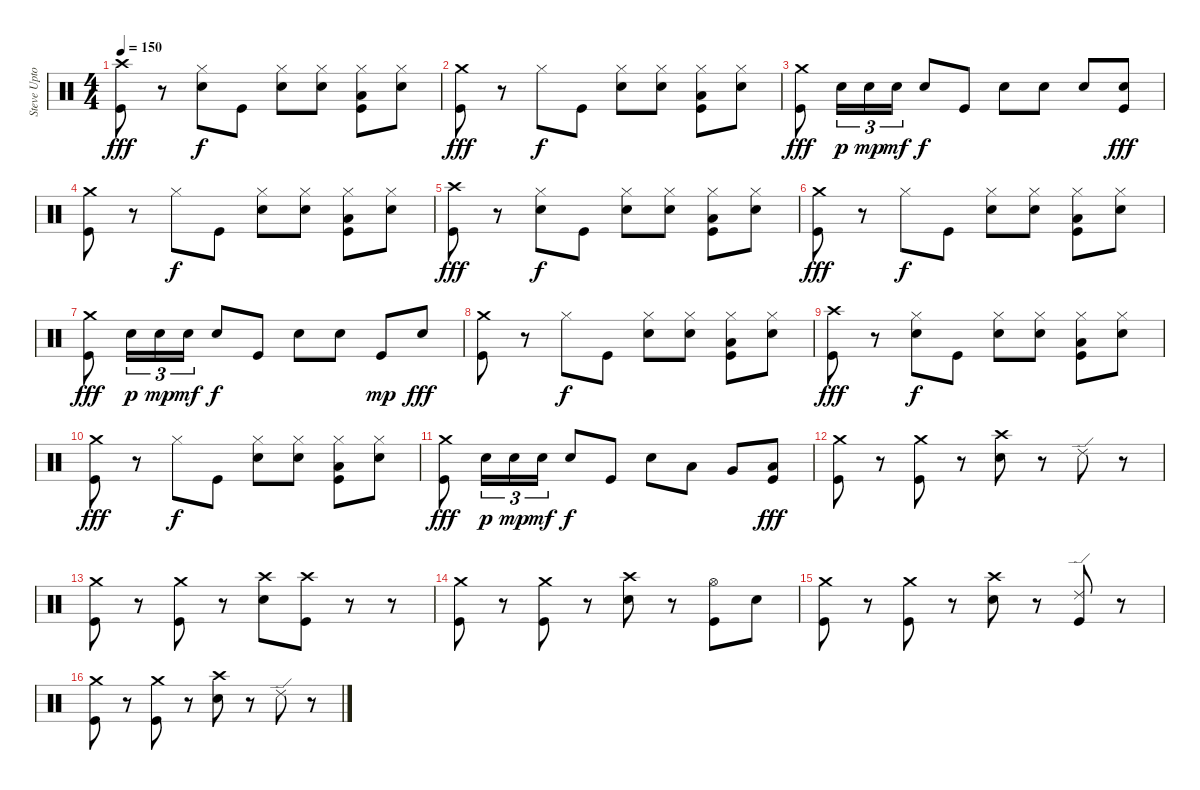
\track ("Steve Upton (drums)" "Steve Upto") {instrument percussion}
\staff {score}
\articulation defaults
\ts (4 4)
\tempo 150
\clef neutral
\ks c
("Crash high (hit)" "Kick (hit)").8{dy fff} r.8 ("Hi-Hat (closed)" "Electric Snare (hit)").8{dy f} "Kick (hit)".8 ("Hi-Hat (closed)" "Electric Snare (hit)").8 ("Hi-Hat (closed)" "Electric Snare (hit)").8 ("Hi-Hat (closed)" "Low Tom (hit)" "Kick (hit)").8 ("Hi-Hat (closed)" "Electric Snare (hit)").8 |
("Crash medium (hit)" "Kick (hit)").8{dy fff} r.8 "Hi-Hat (closed)".8{dy f} "Kick (hit)".8 ("Hi-Hat (closed)" "Electric Snare (hit)").8 ("Hi-Hat (closed)" "Electric Snare (hit)").8 ("Hi-Hat (closed)" "Low Tom (hit)" "Kick (hit)").8 ("Hi-Hat (closed)" "Electric Snare (hit)").8 |
("Crash medium (hit)" "Kick (hit)").8{dy fff} "Electric Snare (hit)".16{tu (3 2) dy p} "Electric Snare (hit)".16{tu (3 2) dy mp} "Electric Snare (hit)".16{tu (3 2) dy mf} "Electric Snare (hit)".8{dy f} "Kick (hit)".8 "Electric Snare (hit)".8 "Electric Snare (hit)".8 "Electric Snare (hit)".8 ("Electric Snare (hit)" "Kick (hit)").8{dy fff} |
("Crash medium (hit)" "Kick (hit)").8 r.8 "Hi-Hat (closed)".8{dy f} "Kick (hit)".8 ("Hi-Hat (closed)" "Electric Snare (hit)").8 ("Hi-Hat (closed)" "Electric Snare (hit)").8 ("Hi-Hat (closed)" "Low Tom (hit)" "Kick (hit)").8 ("Hi-Hat (closed)" "Electric Snare (hit)").8 |
("Crash high (hit)" "Kick (hit)").8{dy fff} r.8 ("Hi-Hat (closed)" "Electric Snare (hit)").8{dy f} "Kick (hit)".8 ("Hi-Hat (closed)" "Electric Snare (hit)").8 ("Hi-Hat (closed)" "Electric Snare (hit)").8 ("Hi-Hat (closed)" "Low Tom (hit)" "Kick (hit)").8 ("Hi-Hat (closed)" "Electric Snare (hit)").8 |
("Crash medium (hit)" "Kick (hit)").8{dy fff} r.8 "Hi-Hat (closed)".8{dy f} "Kick (hit)".8 ("Hi-Hat (closed)" "Electric Snare (hit)").8 ("Hi-Hat (closed)" "Electric Snare (hit)").8 ("Hi-Hat (closed)" "Low Tom (hit)" "Kick (hit)").8 ("Hi-Hat (closed)" "Electric Snare (hit)").8 |
("Crash medium (hit)" "Kick (hit)").8{dy fff} "Electric Snare (hit)".16{tu (3 2) dy p} "Electric Snare (hit)".16{tu (3 2) dy mp} "Electric Snare (hit)".16{tu (3 2) dy mf} "Electric Snare (hit)".8{dy f} "Kick (hit)".8 "Electric Snare (hit)".8 "Electric Snare (hit)".8 "Kick (hit)".8{dy mp} "Electric Snare (hit)".8{dy fff} |
("Crash medium (hit)" "Kick (hit)").8 r.8 "Hi-Hat (closed)".8{dy f} "Kick (hit)".8 ("Hi-Hat (closed)" "Electric Snare (hit)").8 ("Hi-Hat (closed)" "Electric Snare (hit)").8 ("Hi-Hat (closed)" "Low Tom (hit)" "Kick (hit)").8 ("Hi-Hat (closed)" "Electric Snare (hit)").8 |
("Crash high (hit)" "Kick (hit)").8{dy fff} r.8 ("Hi-Hat (closed)" "Electric Snare (hit)").8{dy f} "Kick (hit)".8 ("Hi-Hat (closed)" "Electric Snare (hit)").8 ("Hi-Hat (closed)" "Electric Snare (hit)").8 ("Hi-Hat (closed)" "Low Tom (hit)" "Kick (hit)").8 ("Hi-Hat (closed)" "Electric Snare (hit)").8 |
("Crash medium (hit)" "Kick (hit)").8{dy fff} r.8 "Hi-Hat (closed)".8{dy f} "Kick (hit)".8 ("Hi-Hat (closed)" "Electric Snare (hit)").8 ("Hi-Hat (closed)" "Electric Snare (hit)").8 ("Hi-Hat (closed)" "Low Tom (hit)" "Kick (hit)").8 ("Hi-Hat (closed)" "Electric Snare (hit)").8 |
("Crash medium (hit)" "Kick (hit)").8{dy fff} "Electric Snare (hit)".16{tu (3 2) dy p} "Electric Snare (hit)".16{tu (3 2) dy mp} "Electric Snare (hit)".16{tu (3 2) dy mf} "Electric Snare (hit)".8{dy f} "Kick (hit)".8 "Electric Snare (hit)".8 "Low Tom (hit)".8 "Very Low Tom (hit)".8 ("Low Floor Tom (hit)" "Kick (hit)").8{dy fff} |
("Crash medium (hit)" "Kick (hit)").8 r.8 ("Crash medium (hit)" "Kick (hit)").8 r.8 ("Crash high (hit)" "Electric Snare (hit)").8 r.8 "Ride (edge) 2".8 r.8 |
("Crash medium (hit)" "Kick (hit)").8 r.8 ("Crash medium (hit)" "Kick (hit)").8 r.8 ("Crash high (hit)" "Electric Snare (hit)").8 ("Crash high (hit)" "Kick (hit)").8 r.8 r.8 |
("Crash medium (hit)" "Kick (hit)").8 r.8 ("Crash medium (hit)" "Kick (hit)").8 r.8 ("Crash high (hit)" "Electric Snare (hit)").8 r.8 ("Hi-Hat (open)" "Kick (hit)").8 "Electric Snare (hit)".8 |
("Crash medium (hit)" "Kick (hit)").8 r.8 ("Crash medium (hit)" "Kick (hit)").8 r.8 ("Crash high (hit)" "Electric Snare (hit)").8 r.8 ("Ride (edge) 2" "Kick (hit)").8 r.8 |
("Crash medium (hit)" "Kick (hit)").8 r.8 ("Crash medium (hit)" "Kick (hit)").8 r.8 ("Crash high (hit)" "Electric Snare (hit)").8 r.8 "Ride (edge) 2".8 r.8
